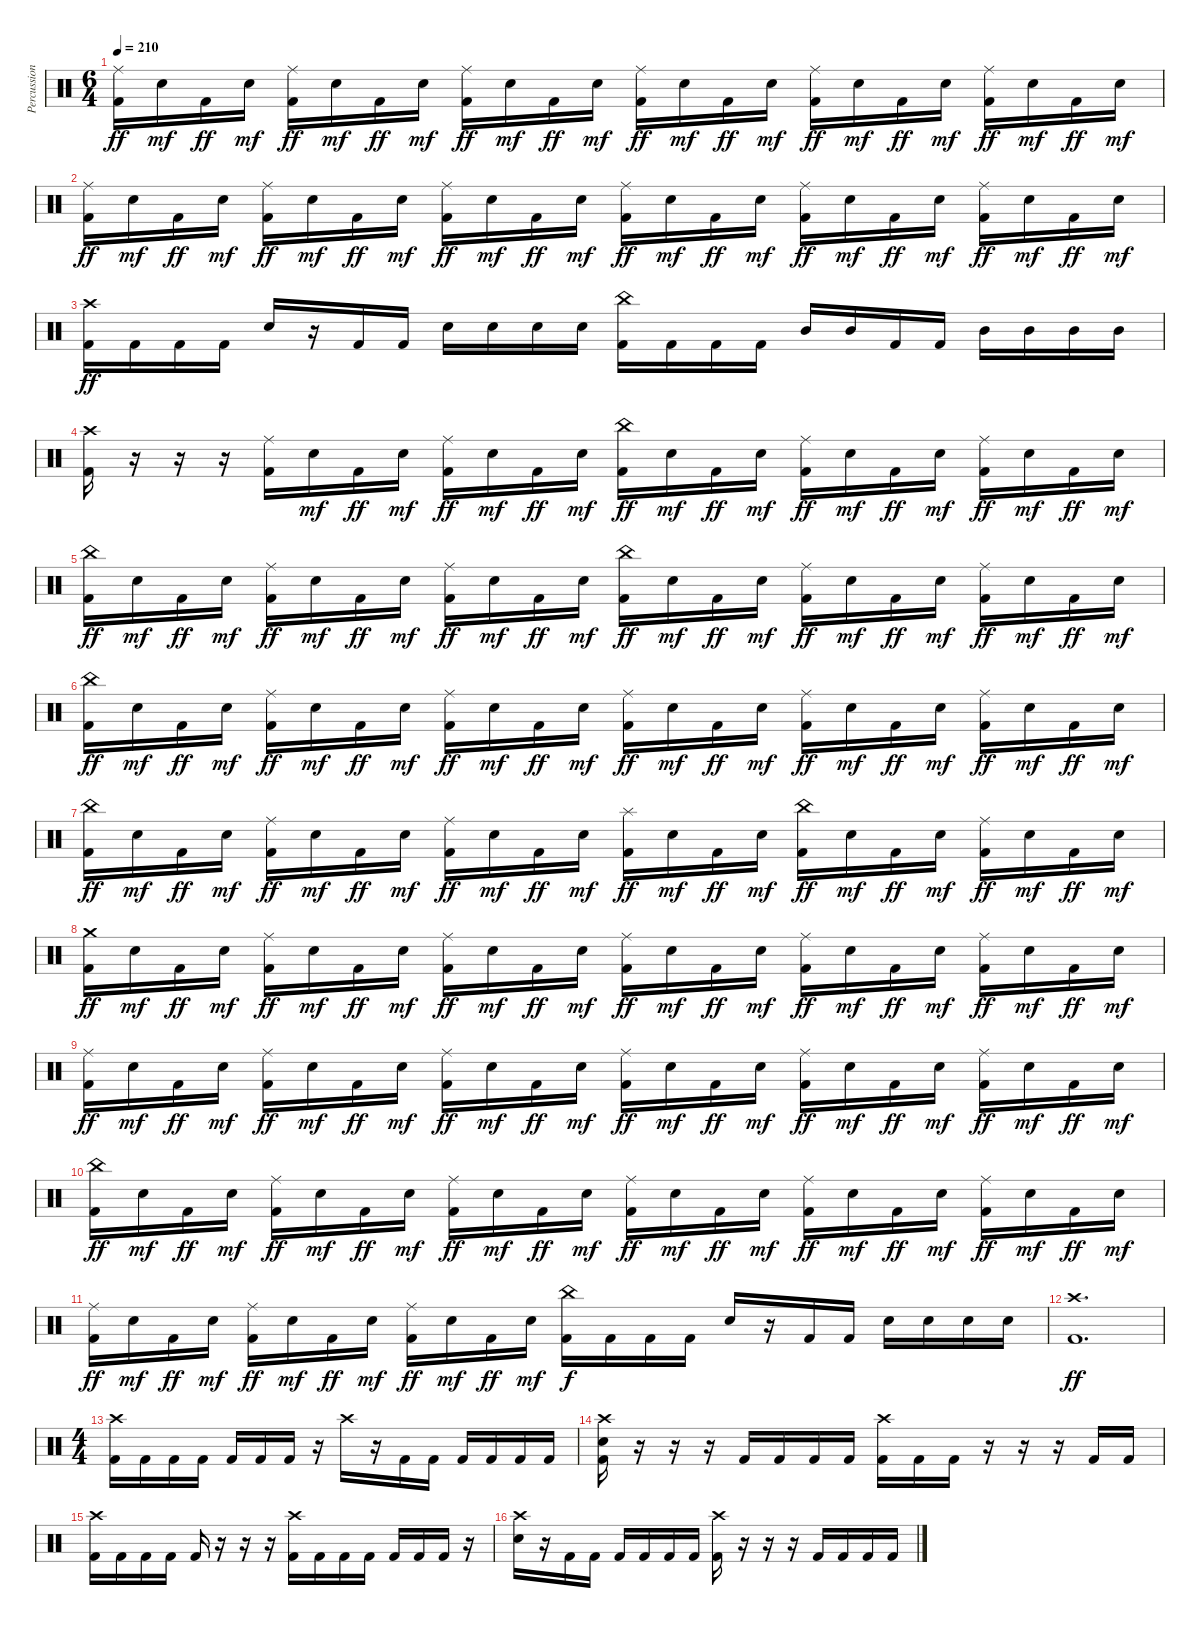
\track ("Percussion" "Percussion") {instrument percussion}
\staff {score}
\articulation defaults
\ts (6 4)
\tempo 210
\clef neutral
\ks c
("Ride (middle)" "Kick (hit) 2").16{dy ff} "Electric Snare (hit)".16{dy mf} "Kick (hit) 2".16{dy ff} "Electric Snare (hit)".16{dy mf} ("Ride (middle)" "Kick (hit) 2").16{dy ff} "Electric Snare (hit)".16{dy mf} "Kick (hit) 2".16{dy ff} "Electric Snare (hit)".16{dy mf} ("Ride (middle)" "Kick (hit) 2").16{dy ff} "Electric Snare (hit)".16{dy mf} "Kick (hit) 2".16{dy ff} "Electric Snare (hit)".16{dy mf} ("Ride (middle)" "Kick (hit) 2").16{dy ff} "Electric Snare (hit)".16{dy mf} "Kick (hit) 2".16{dy ff} "Electric Snare (hit)".16{dy mf} ("Ride (middle)" "Kick (hit) 2").16{dy ff} "Electric Snare (hit)".16{dy mf} "Kick (hit) 2".16{dy ff} "Electric Snare (hit)".16{dy mf} ("Ride (middle)" "Kick (hit) 2").16{dy ff} "Electric Snare (hit)".16{dy mf} "Kick (hit) 2".16{dy ff} "Electric Snare (hit)".16{dy mf} |
("Ride (middle)" "Kick (hit) 2").16{dy ff} "Electric Snare (hit)".16{dy mf} "Kick (hit) 2".16{dy ff} "Electric Snare (hit)".16{dy mf} ("Ride (middle)" "Kick (hit) 2").16{dy ff} "Electric Snare (hit)".16{dy mf} "Kick (hit) 2".16{dy ff} "Electric Snare (hit)".16{dy mf} ("Ride (middle)" "Kick (hit) 2").16{dy ff} "Electric Snare (hit)".16{dy mf} "Kick (hit) 2".16{dy ff} "Electric Snare (hit)".16{dy mf} ("Ride (middle)" "Kick (hit) 2").16{dy ff} "Electric Snare (hit)".16{dy mf} "Kick (hit) 2".16{dy ff} "Electric Snare (hit)".16{dy mf} ("Ride (middle)" "Kick (hit) 2").16{dy ff} "Electric Snare (hit)".16{dy mf} "Kick (hit) 2".16{dy ff} "Electric Snare (hit)".16{dy mf} ("Ride (middle)" "Kick (hit) 2").16{dy ff} "Electric Snare (hit)".16{dy mf} "Kick (hit) 2".16{dy ff} "Electric Snare (hit)".16{dy mf} |
("Crash high (hit)" "Kick (hit) 2").16{dy ff} "Kick (hit) 2".16 "Kick (hit) 2".16 "Kick (hit) 2".16 "Electric Snare (hit)".16 r.16 "Kick (hit) 2".16 "Kick (hit) 2".16 "Electric Snare (hit)".16 "Electric Snare (hit)".16 "Electric Snare (hit)".16 "Electric Snare (hit)".16 ("China (hit)" "Kick (hit) 2").16 "Kick (hit) 2".16 "Kick (hit) 2".16 "Kick (hit) 2".16 "Mid Tom (hit)".16 "Mid Tom (hit)".16 "Kick (hit) 2".16 "Kick (hit) 2".16 "Mid Tom (hit)".16 "Mid Tom (hit)".16 "Mid Tom (hit)".16 "Mid Tom (hit)".16 |
("Crash high (hit)" "Kick (hit) 2").16 r.16 r.16 r.16 ("Ride (middle)" "Kick (hit) 2").16 "Electric Snare (hit)".16{dy mf} "Kick (hit) 2".16{dy ff} "Electric Snare (hit)".16{dy mf} ("Ride (middle)" "Kick (hit) 2").16{dy ff} "Electric Snare (hit)".16{dy mf} "Kick (hit) 2".16{dy ff} "Electric Snare (hit)".16{dy mf} ("China (hit)" "Kick (hit) 2").16{dy ff} "Electric Snare (hit)".16{dy mf} "Kick (hit) 2".16{dy ff} "Electric Snare (hit)".16{dy mf} ("Ride (middle)" "Kick (hit) 2").16{dy ff} "Electric Snare (hit)".16{dy mf} "Kick (hit) 2".16{dy ff} "Electric Snare (hit)".16{dy mf} ("Ride (middle)" "Kick (hit) 2").16{dy ff} "Electric Snare (hit)".16{dy mf} "Kick (hit) 2".16{dy ff} "Electric Snare (hit)".16{dy mf} |
("China (hit)" "Kick (hit) 2").16{dy ff} "Electric Snare (hit)".16{dy mf} "Kick (hit) 2".16{dy ff} "Electric Snare (hit)".16{dy mf} ("Ride (middle)" "Kick (hit) 2").16{dy ff} "Electric Snare (hit)".16{dy mf} "Kick (hit) 2".16{dy ff} "Electric Snare (hit)".16{dy mf} ("Ride (middle)" "Kick (hit) 2").16{dy ff} "Electric Snare (hit)".16{dy mf} "Kick (hit) 2".16{dy ff} "Electric Snare (hit)".16{dy mf} ("China (hit)" "Kick (hit) 2").16{dy ff} "Electric Snare (hit)".16{dy mf} "Kick (hit) 2".16{dy ff} "Electric Snare (hit)".16{dy mf} ("Ride (middle)" "Kick (hit) 2").16{dy ff} "Electric Snare (hit)".16{dy mf} "Kick (hit) 2".16{dy ff} "Electric Snare (hit)".16{dy mf} ("Ride (middle)" "Kick (hit) 2").16{dy ff} "Electric Snare (hit)".16{dy mf} "Kick (hit) 2".16{dy ff} "Electric Snare (hit)".16{dy mf} |
("China (hit)" "Kick (hit) 2").16{dy ff} "Electric Snare (hit)".16{dy mf} "Kick (hit) 2".16{dy ff} "Electric Snare (hit)".16{dy mf} ("Ride (middle)" "Kick (hit) 2").16{dy ff} "Electric Snare (hit)".16{dy mf} "Kick (hit) 2".16{dy ff} "Electric Snare (hit)".16{dy mf} ("Ride (middle)" "Kick (hit) 2").16{dy ff} "Electric Snare (hit)".16{dy mf} "Kick (hit) 2".16{dy ff} "Electric Snare (hit)".16{dy mf} ("Ride (middle)" "Kick (hit) 2").16{dy ff} "Electric Snare (hit)".16{dy mf} "Kick (hit) 2".16{dy ff} "Electric Snare (hit)".16{dy mf} ("Ride (middle)" "Kick (hit) 2").16{dy ff} "Electric Snare (hit)".16{dy mf} "Kick (hit) 2".16{dy ff} "Electric Snare (hit)".16{dy mf} ("Ride (middle)" "Kick (hit) 2").16{dy ff} "Electric Snare (hit)".16{dy mf} "Kick (hit) 2".16{dy ff} "Electric Snare (hit)".16{dy mf} |
("China (hit)" "Kick (hit) 2").16{dy ff} "Electric Snare (hit)".16{dy mf} "Kick (hit) 2".16{dy ff} "Electric Snare (hit)".16{dy mf} ("Ride (middle)" "Kick (hit) 2").16{dy ff} "Electric Snare (hit)".16{dy mf} "Kick (hit) 2".16{dy ff} "Electric Snare (hit)".16{dy mf} ("Ride (middle)" "Kick (hit) 2").16{dy ff} "Electric Snare (hit)".16{dy mf} "Kick (hit) 2".16{dy ff} "Electric Snare (hit)".16{dy mf} ("Splash (hit)" "Kick (hit) 2").16{dy ff} "Electric Snare (hit)".16{dy mf} "Kick (hit) 2".16{dy ff} "Electric Snare (hit)".16{dy mf} ("China (hit)" "Kick (hit) 2").16{dy ff} "Electric Snare (hit)".16{dy mf} "Kick (hit) 2".16{dy ff} "Electric Snare (hit)".16{dy mf} ("Ride (middle)" "Kick (hit) 2").16{dy ff} "Electric Snare (hit)".16{dy mf} "Kick (hit) 2".16{dy ff} "Electric Snare (hit)".16{dy mf} |
("Crash medium (hit)" "Kick (hit) 2").16{dy ff} "Electric Snare (hit)".16{dy mf} "Kick (hit) 2".16{dy ff} "Electric Snare (hit)".16{dy mf} ("Ride (middle)" "Kick (hit) 2").16{dy ff} "Electric Snare (hit)".16{dy mf} "Kick (hit) 2".16{dy ff} "Electric Snare (hit)".16{dy mf} ("Ride (middle)" "Kick (hit) 2").16{dy ff} "Electric Snare (hit)".16{dy mf} "Kick (hit) 2".16{dy ff} "Electric Snare (hit)".16{dy mf} ("Ride (middle)" "Kick (hit) 2").16{dy ff} "Electric Snare (hit)".16{dy mf} "Kick (hit) 2".16{dy ff} "Electric Snare (hit)".16{dy mf} ("Ride (middle)" "Kick (hit) 2").16{dy ff} "Electric Snare (hit)".16{dy mf} "Kick (hit) 2".16{dy ff} "Electric Snare (hit)".16{dy mf} ("Ride (middle)" "Kick (hit) 2").16{dy ff} "Electric Snare (hit)".16{dy mf} "Kick (hit) 2".16{dy ff} "Electric Snare (hit)".16{dy mf} |
("Ride (middle)" "Kick (hit) 2").16{dy ff} "Electric Snare (hit)".16{dy mf} "Kick (hit) 2".16{dy ff} "Electric Snare (hit)".16{dy mf} ("Ride (middle)" "Kick (hit) 2").16{dy ff} "Electric Snare (hit)".16{dy mf} "Kick (hit) 2".16{dy ff} "Electric Snare (hit)".16{dy mf} ("Ride (middle)" "Kick (hit) 2").16{dy ff} "Electric Snare (hit)".16{dy mf} "Kick (hit) 2".16{dy ff} "Electric Snare (hit)".16{dy mf} ("Ride (middle)" "Kick (hit) 2").16{dy ff} "Electric Snare (hit)".16{dy mf} "Kick (hit) 2".16{dy ff} "Electric Snare (hit)".16{dy mf} ("Ride (middle)" "Kick (hit) 2").16{dy ff} "Electric Snare (hit)".16{dy mf} "Kick (hit) 2".16{dy ff} "Electric Snare (hit)".16{dy mf} ("Ride (middle)" "Kick (hit) 2").16{dy ff} "Electric Snare (hit)".16{dy mf} "Kick (hit) 2".16{dy ff} "Electric Snare (hit)".16{dy mf} |
("China (hit)" "Kick (hit) 2").16{dy ff} "Electric Snare (hit)".16{dy mf} "Kick (hit) 2".16{dy ff} "Electric Snare (hit)".16{dy mf} ("Ride (middle)" "Kick (hit) 2").16{dy ff} "Electric Snare (hit)".16{dy mf} "Kick (hit) 2".16{dy ff} "Electric Snare (hit)".16{dy mf} ("Ride (middle)" "Kick (hit) 2").16{dy ff} "Electric Snare (hit)".16{dy mf} "Kick (hit) 2".16{dy ff} "Electric Snare (hit)".16{dy mf} ("Ride (middle)" "Kick (hit) 2").16{dy ff} "Electric Snare (hit)".16{dy mf} "Kick (hit) 2".16{dy ff} "Electric Snare (hit)".16{dy mf} ("Ride (middle)" "Kick (hit) 2").16{dy ff} "Electric Snare (hit)".16{dy mf} "Kick (hit) 2".16{dy ff} "Electric Snare (hit)".16{dy mf} ("Ride (middle)" "Kick (hit) 2").16{dy ff} "Electric Snare (hit)".16{dy mf} "Kick (hit) 2".16{dy ff} "Electric Snare (hit)".16{dy mf} |
("Ride (middle)" "Kick (hit) 2").16{dy ff} "Electric Snare (hit)".16{dy mf} "Kick (hit) 2".16{dy ff} "Electric Snare (hit)".16{dy mf} ("Ride (middle)" "Kick (hit) 2").16{dy ff} "Electric Snare (hit)".16{dy mf} "Kick (hit) 2".16{dy ff} "Electric Snare (hit)".16{dy mf} ("Ride (middle)" "Kick (hit) 2").16{dy ff} "Electric Snare (hit)".16{dy mf} "Kick (hit) 2".16{dy ff} "Electric Snare (hit)".16{dy mf} ("China (hit)" "Kick (hit) 2").16{dy f} "Kick (hit) 2".16 "Kick (hit) 2".16 "Kick (hit) 2".16 "Electric Snare (hit)".16 r.16 "Kick (hit) 2".16 "Kick (hit) 2".16 "Electric Snare (hit)".16 "Electric Snare (hit)".16 "Electric Snare (hit)".16 "Electric Snare (hit)".16 |
("Crash high (hit)" "Kick (hit) 2").1{d dy ff} |
\ts (4 4)
("Crash high (hit)" "Kick (hit) 2").16 "Kick (hit) 2".16 "Kick (hit) 2".16 "Kick (hit) 2".16 "Kick (hit) 2".16 "Kick (hit) 2".16 "Kick (hit) 2".16 r.16 "Crash high (hit)".16 r.16 "Kick (hit) 2".16 "Kick (hit) 2".16 "Kick (hit) 2".16 "Kick (hit) 2".16 "Kick (hit) 2".16 "Kick (hit) 2".16 |
("Crash high (hit)" "Electric Snare (hit)" "Kick (hit) 2").16 r.16 r.16 r.16 "Kick (hit) 2".16 "Kick (hit) 2".16 "Kick (hit) 2".16 "Kick (hit) 2".16 ("Crash high (hit)" "Kick (hit) 2").16 "Kick (hit) 2".16 "Kick (hit) 2".16 r.16 r.16 r.16 "Kick (hit) 2".16 "Kick (hit) 2".16 |
("Crash high (hit)" "Kick (hit) 2").16 "Kick (hit) 2".16 "Kick (hit) 2".16 "Kick (hit) 2".16 "Kick (hit) 2".16 r.16 r.16 r.16 ("Crash high (hit)" "Kick (hit) 2").16 "Kick (hit) 2".16 "Kick (hit) 2".16 "Kick (hit) 2".16 "Kick (hit) 2".16 "Kick (hit) 2".16 "Kick (hit) 2".16 r.16 |
("Crash high (hit)" "Electric Snare (hit)").16 r.16 "Kick (hit) 2".16 "Kick (hit) 2".16 "Kick (hit) 2".16 "Kick (hit) 2".16 "Kick (hit) 2".16 "Kick (hit) 2".16 ("Crash high (hit)" "Kick (hit) 2").16 r.16 r.16 r.16 "Kick (hit) 2".16 "Kick (hit) 2".16 "Kick (hit) 2".16 "Kick (hit) 2".16
